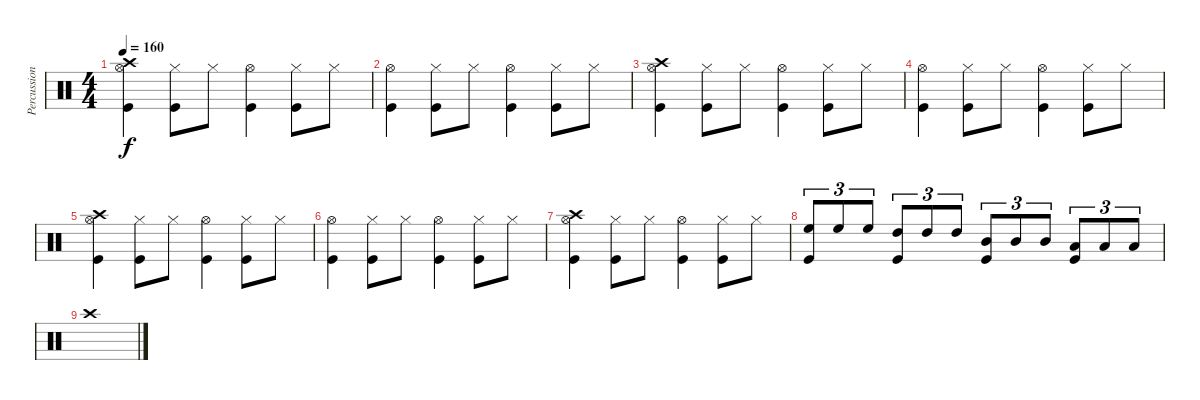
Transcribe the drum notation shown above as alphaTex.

\track ("Percussion" "Percussion") {instrument percussion}
\staff {score}
\articulation defaults
\ts (4 4)
\tempo 160
\clef neutral
\ks c
("Hi-Hat (open)" "Crash high (hit)" "Kick (hit)").4{dy f} ("Hi-Hat (closed)" "Kick (hit)").8 "Hi-Hat (closed)".8 ("Hi-Hat (open)" "Kick (hit)").4 ("Hi-Hat (closed)" "Kick (hit)").8 "Hi-Hat (closed)".8 |
("Hi-Hat (open)" "Kick (hit)").4 ("Hi-Hat (closed)" "Kick (hit)").8 "Hi-Hat (closed)".8 ("Hi-Hat (open)" "Kick (hit)").4 ("Hi-Hat (closed)" "Kick (hit)").8 "Hi-Hat (closed)".8 |
("Hi-Hat (open)" "Crash high (hit)" "Kick (hit)").4 ("Hi-Hat (closed)" "Kick (hit)").8 "Hi-Hat (closed)".8 ("Hi-Hat (open)" "Kick (hit)").4 ("Hi-Hat (closed)" "Kick (hit)").8 "Hi-Hat (closed)".8 |
("Hi-Hat (open)" "Kick (hit)").4 ("Hi-Hat (closed)" "Kick (hit)").8 "Hi-Hat (closed)".8 ("Hi-Hat (open)" "Kick (hit)").4 ("Hi-Hat (closed)" "Kick (hit)").8 "Hi-Hat (closed)".8 |
("Hi-Hat (open)" "Crash high (hit)" "Kick (hit)").4 ("Hi-Hat (closed)" "Kick (hit)").8 "Hi-Hat (closed)".8 ("Hi-Hat (open)" "Kick (hit)").4 ("Hi-Hat (closed)" "Kick (hit)").8 "Hi-Hat (closed)".8 |
("Hi-Hat (open)" "Kick (hit)").4 ("Hi-Hat (closed)" "Kick (hit)").8 "Hi-Hat (closed)".8 ("Hi-Hat (open)" "Kick (hit)").4 ("Hi-Hat (closed)" "Kick (hit)").8 "Hi-Hat (closed)".8 |
("Hi-Hat (open)" "Crash high (hit)" "Kick (hit)").4 ("Hi-Hat (closed)" "Kick (hit)").8 "Hi-Hat (closed)".8 ("Hi-Hat (open)" "Kick (hit)").4 ("Hi-Hat (closed)" "Kick (hit)").8 "Hi-Hat (closed)".8 |
("High Floor Tom (hit)" "Kick (hit)").8{tu (3 2)} "High Floor Tom (hit)".8{tu (3 2)} "High Floor Tom (hit)".8{tu (3 2)} ("High Tom (hit)" "Kick (hit)").8{tu (3 2)} "High Tom (hit)".8{tu (3 2)} "High Tom (hit)".8{tu (3 2)} ("Mid Tom (hit)" "Kick (hit)").8{tu (3 2)} "Mid Tom (hit)".8{tu (3 2)} "Mid Tom (hit)".8{tu (3 2)} ("Low Tom (hit)" "Kick (hit)").8{tu (3 2)} "Low Tom (hit)".8{tu (3 2)} "Low Tom (hit)".8{tu (3 2)} |
"Crash high (hit)".1
